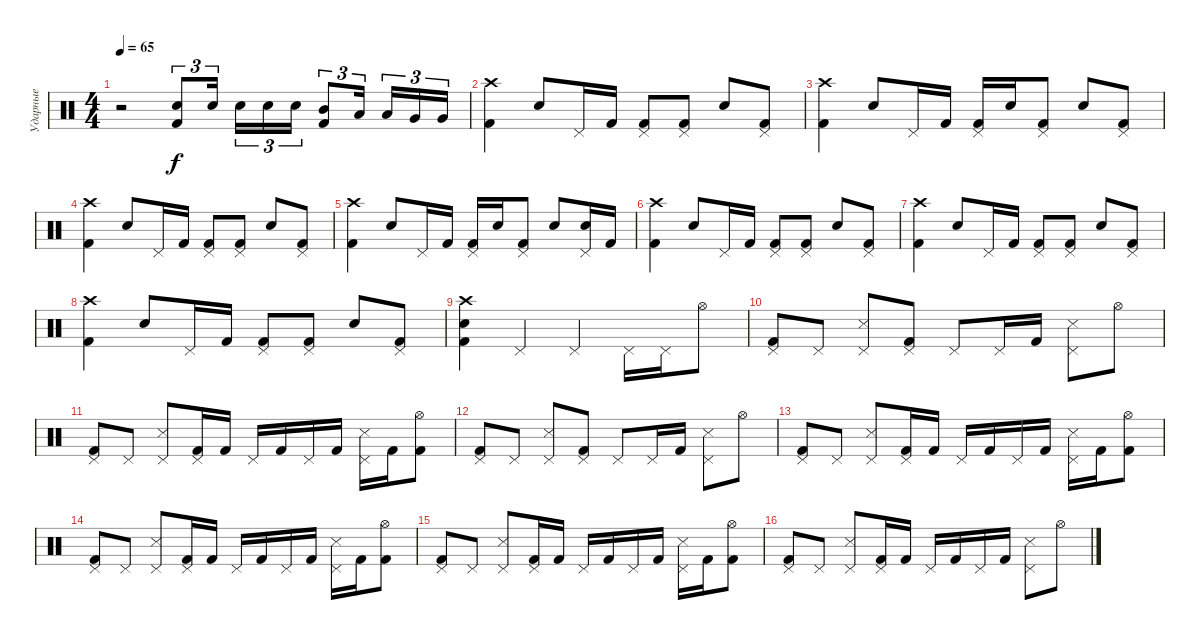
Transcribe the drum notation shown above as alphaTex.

\track ("Ударные" "Ударные") {instrument percussion}
\staff {score}
\articulation defaults
\ts (4 4)
\tempo 65
\clef neutral
\ks c
r.2{dy f} ("Electric Snare (hit)" "Kick (hit) 2").8{tu (3 2)} "Electric Snare (hit)".16{tu (3 2) beam splitsecondary} "Electric Snare (hit)".16{tu (3 2)} "Electric Snare (hit)".16{tu (3 2)} "Electric Snare (hit)".16{tu (3 2)} ("Mid Tom (hit)" "Kick (hit) 2").8{tu (3 2)} "Low Tom (hit)".16{tu (3 2) beam splitsecondary} "Low Tom (hit)".16{tu (3 2)} "Very Low Tom (hit)".16{tu (3 2)} "Very Low Tom (hit)".16{tu (3 2)} |
("Crash high (hit)" "Kick (hit) 2").4 "Electric Snare (hit)".8 "Pedal Hi-Hat (hit)".16 "Kick (hit) 2".16 ("Pedal Hi-Hat (hit)" "Kick (hit) 2").8 ("Pedal Hi-Hat (hit)" "Kick (hit) 2").8 "Electric Snare (hit)".8 ("Pedal Hi-Hat (hit)" "Kick (hit) 2").8 |
("Crash high (hit)" "Kick (hit) 2").4 "Electric Snare (hit)".8 "Pedal Hi-Hat (hit)".16 "Kick (hit) 2".16 ("Pedal Hi-Hat (hit)" "Kick (hit) 2").16 "Electric Snare (hit)".16 ("Pedal Hi-Hat (hit)" "Kick (hit) 2").8 "Electric Snare (hit)".8 ("Pedal Hi-Hat (hit)" "Kick (hit) 2").8 |
("Crash high (hit)" "Kick (hit) 2").4 "Electric Snare (hit)".8 "Pedal Hi-Hat (hit)".16 "Kick (hit) 2".16 ("Pedal Hi-Hat (hit)" "Kick (hit) 2").8 ("Pedal Hi-Hat (hit)" "Kick (hit) 2").8 "Electric Snare (hit)".8 ("Pedal Hi-Hat (hit)" "Kick (hit) 2").8 |
("Crash high (hit)" "Kick (hit) 2").4 "Electric Snare (hit)".8 "Pedal Hi-Hat (hit)".16 "Kick (hit) 2".16 ("Pedal Hi-Hat (hit)" "Kick (hit) 2").16 "Electric Snare (hit)".16 ("Pedal Hi-Hat (hit)" "Kick (hit) 2").8 "Electric Snare (hit)".8 ("Pedal Hi-Hat (hit)" "Electric Snare (hit)").16 "Kick (hit) 2".16 |
("Crash high (hit)" "Kick (hit) 2").4 "Electric Snare (hit)".8 "Pedal Hi-Hat (hit)".16 "Kick (hit) 2".16 ("Pedal Hi-Hat (hit)" "Kick (hit) 2").8 ("Pedal Hi-Hat (hit)" "Kick (hit) 2").8 "Electric Snare (hit)".8 ("Pedal Hi-Hat (hit)" "Kick (hit) 2").8 |
("Crash high (hit)" "Kick (hit) 2").4 "Electric Snare (hit)".8 "Pedal Hi-Hat (hit)".16 "Kick (hit) 2".16 ("Pedal Hi-Hat (hit)" "Kick (hit) 2").8 ("Pedal Hi-Hat (hit)" "Kick (hit) 2").8 "Electric Snare (hit)".8 ("Pedal Hi-Hat (hit)" "Kick (hit) 2").8 |
("Crash high (hit)" "Kick (hit) 2").4 "Electric Snare (hit)".8 "Pedal Hi-Hat (hit)".16 "Kick (hit) 2".16 ("Pedal Hi-Hat (hit)" "Kick (hit) 2").8 ("Pedal Hi-Hat (hit)" "Kick (hit) 2").8 "Electric Snare (hit)".8 ("Pedal Hi-Hat (hit)" "Kick (hit) 2").8 |
("Crash high (hit)" "Electric Snare (hit)" "Kick (hit) 2").4 "Pedal Hi-Hat (hit)".4 "Pedal Hi-Hat (hit)".4 "Pedal Hi-Hat (hit)".16 "Pedal Hi-Hat (hit)".16 "Hi-Hat (open)".8 |
("Pedal Hi-Hat (hit)" "Kick (hit) 2").8 "Pedal Hi-Hat (hit)".8 ("Snare (side stick) 3" "Pedal Hi-Hat (hit)").8 ("Pedal Hi-Hat (hit)" "Kick (hit) 2").8 "Pedal Hi-Hat (hit)".8 "Pedal Hi-Hat (hit)".16 "Kick (hit) 2".16 ("Snare (side stick) 3" "Pedal Hi-Hat (hit)").8 "Hi-Hat (open)".8 |
("Pedal Hi-Hat (hit)" "Kick (hit) 2").8 "Pedal Hi-Hat (hit)".8 ("Snare (side stick) 3" "Pedal Hi-Hat (hit)").8 ("Pedal Hi-Hat (hit)" "Kick (hit) 2").16 "Kick (hit) 2".16 "Pedal Hi-Hat (hit)".16 "Kick (hit) 2".16 "Pedal Hi-Hat (hit)".16 "Kick (hit) 2".16 ("Snare (side stick) 3" "Pedal Hi-Hat (hit)").16 "Kick (hit) 2".16 ("Hi-Hat (open)" "Kick (hit) 2").8 |
("Pedal Hi-Hat (hit)" "Kick (hit) 2").8 "Pedal Hi-Hat (hit)".8 ("Snare (side stick) 3" "Pedal Hi-Hat (hit)").8 ("Pedal Hi-Hat (hit)" "Kick (hit) 2").8 "Pedal Hi-Hat (hit)".8 "Pedal Hi-Hat (hit)".16 "Kick (hit) 2".16 ("Snare (side stick) 3" "Pedal Hi-Hat (hit)").8 "Hi-Hat (open)".8 |
("Pedal Hi-Hat (hit)" "Kick (hit) 2").8 "Pedal Hi-Hat (hit)".8 ("Snare (side stick) 3" "Pedal Hi-Hat (hit)").8 ("Pedal Hi-Hat (hit)" "Kick (hit) 2").16 "Kick (hit) 2".16 "Pedal Hi-Hat (hit)".16 "Kick (hit) 2".16 "Pedal Hi-Hat (hit)".16 "Kick (hit) 2".16 ("Snare (side stick) 3" "Pedal Hi-Hat (hit)").16 "Kick (hit) 2".16 ("Hi-Hat (open)" "Kick (hit) 2").8 |
("Pedal Hi-Hat (hit)" "Kick (hit) 2").8 "Pedal Hi-Hat (hit)".8 ("Snare (side stick) 3" "Pedal Hi-Hat (hit)").8 ("Pedal Hi-Hat (hit)" "Kick (hit) 2").16 "Kick (hit) 2".16 "Pedal Hi-Hat (hit)".16 "Kick (hit) 2".16 "Pedal Hi-Hat (hit)".16 "Kick (hit) 2".16 ("Snare (side stick) 3" "Pedal Hi-Hat (hit)").16 "Kick (hit) 2".16 ("Hi-Hat (open)" "Kick (hit) 2").8 |
("Pedal Hi-Hat (hit)" "Kick (hit) 2").8 "Pedal Hi-Hat (hit)".8 ("Snare (side stick) 3" "Pedal Hi-Hat (hit)").8 ("Pedal Hi-Hat (hit)" "Kick (hit) 2").16 "Kick (hit) 2".16 "Pedal Hi-Hat (hit)".16 "Kick (hit) 2".16 "Pedal Hi-Hat (hit)".16 "Kick (hit) 2".16 ("Snare (side stick) 3" "Pedal Hi-Hat (hit)").16 "Kick (hit) 2".16 ("Hi-Hat (open)" "Kick (hit) 2").8 |
("Pedal Hi-Hat (hit)" "Kick (hit) 2").8 "Pedal Hi-Hat (hit)".8 ("Snare (side stick) 3" "Pedal Hi-Hat (hit)").8 ("Pedal Hi-Hat (hit)" "Kick (hit) 2").16 "Kick (hit) 2".16 "Pedal Hi-Hat (hit)".16 "Kick (hit) 2".16 "Pedal Hi-Hat (hit)".16 "Kick (hit) 2".16 ("Snare (side stick) 3" "Pedal Hi-Hat (hit)").8 "Hi-Hat (open)".8
